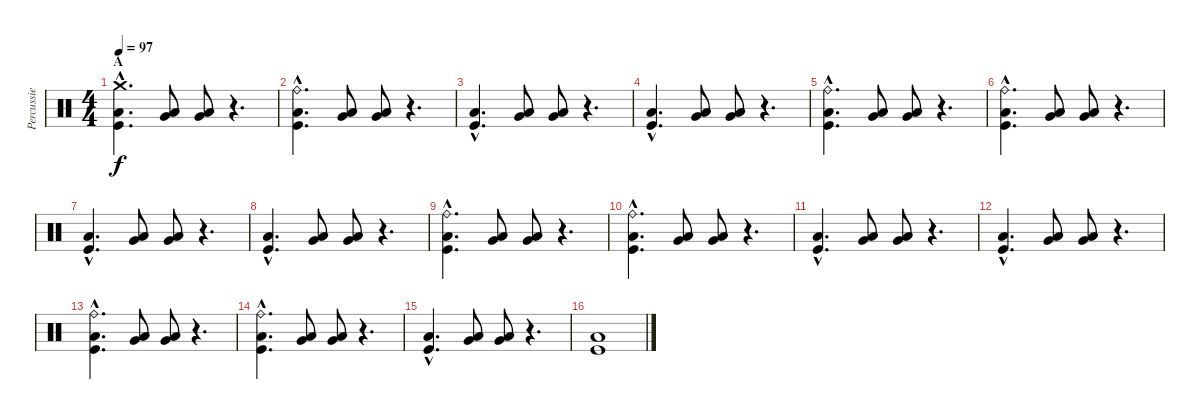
\track ("Percussie" "Percussie") {instrument percussion}
\staff {score}
\articulation defaults
\ts (4 4)
\section ("" "A")
\tempo 97
\clef neutral
\ks c
("Crash medium (hit)"{hac} "Low Floor Tom (hit)"{hac} "Kick (hit)"{hac}).4{d dy f} ("Low Tom (hit)" "Very Low Tom (hit)").8 ("Low Tom (hit)" "Very Low Tom (hit)").8 r.4{d} |
("Ride (bell)"{hac} "Low Floor Tom (hit)"{hac} "Kick (hit)"{hac}).4{d} ("Low Tom (hit)" "Very Low Tom (hit)").8 ("Low Tom (hit)" "Very Low Tom (hit)").8 r.4{d} |
("Low Floor Tom (hit)"{hac} "Kick (hit)"{hac}).4{d} ("Low Tom (hit)" "Very Low Tom (hit)").8 ("Low Tom (hit)" "Very Low Tom (hit)").8 r.4{d} |
("Low Floor Tom (hit)"{hac} "Kick (hit)"{hac}).4{d} ("Low Tom (hit)" "Very Low Tom (hit)").8 ("Low Tom (hit)" "Very Low Tom (hit)").8 r.4{d} |
("Ride (bell)"{hac} "Low Floor Tom (hit)"{hac} "Kick (hit)"{hac}).4{d} ("Low Tom (hit)" "Very Low Tom (hit)").8 ("Low Tom (hit)" "Very Low Tom (hit)").8 r.4{d} |
("Ride (bell)"{hac} "Low Floor Tom (hit)"{hac} "Kick (hit)"{hac}).4{d} ("Low Tom (hit)" "Very Low Tom (hit)").8 ("Low Tom (hit)" "Very Low Tom (hit)").8 r.4{d} |
("Low Floor Tom (hit)"{hac} "Kick (hit)"{hac}).4{d} ("Low Tom (hit)" "Very Low Tom (hit)").8 ("Low Tom (hit)" "Very Low Tom (hit)").8 r.4{d} |
("Low Floor Tom (hit)"{hac} "Kick (hit)"{hac}).4{d} ("Low Tom (hit)" "Very Low Tom (hit)").8 ("Low Tom (hit)" "Very Low Tom (hit)").8 r.4{d} |
("Ride (bell)"{hac} "Low Floor Tom (hit)"{hac} "Kick (hit)"{hac}).4{d} ("Low Tom (hit)" "Very Low Tom (hit)").8 ("Low Tom (hit)" "Very Low Tom (hit)").8 r.4{d} |
("Ride (bell)"{hac} "Low Floor Tom (hit)"{hac} "Kick (hit)"{hac}).4{d} ("Low Tom (hit)" "Very Low Tom (hit)").8 ("Low Tom (hit)" "Very Low Tom (hit)").8 r.4{d} |
("Low Floor Tom (hit)"{hac} "Kick (hit)"{hac}).4{d} ("Low Tom (hit)" "Very Low Tom (hit)").8 ("Low Tom (hit)" "Very Low Tom (hit)").8 r.4{d} |
("Low Floor Tom (hit)"{hac} "Kick (hit)"{hac}).4{d} ("Low Tom (hit)" "Very Low Tom (hit)").8 ("Low Tom (hit)" "Very Low Tom (hit)").8 r.4{d} |
("Ride (bell)"{hac} "Low Floor Tom (hit)"{hac} "Kick (hit)"{hac}).4{d} ("Low Tom (hit)" "Very Low Tom (hit)").8 ("Low Tom (hit)" "Very Low Tom (hit)").8 r.4{d} |
("Ride (bell)"{hac} "Low Floor Tom (hit)"{hac} "Kick (hit)"{hac}).4{d} ("Low Tom (hit)" "Very Low Tom (hit)").8 ("Low Tom (hit)" "Very Low Tom (hit)").8 r.4{d} |
("Low Floor Tom (hit)"{hac} "Kick (hit)"{hac}).4{d} ("Low Tom (hit)" "Very Low Tom (hit)").8 ("Low Tom (hit)" "Very Low Tom (hit)").8 r.4{d} |
("Low Floor Tom (hit)" "Kick (hit)").1
